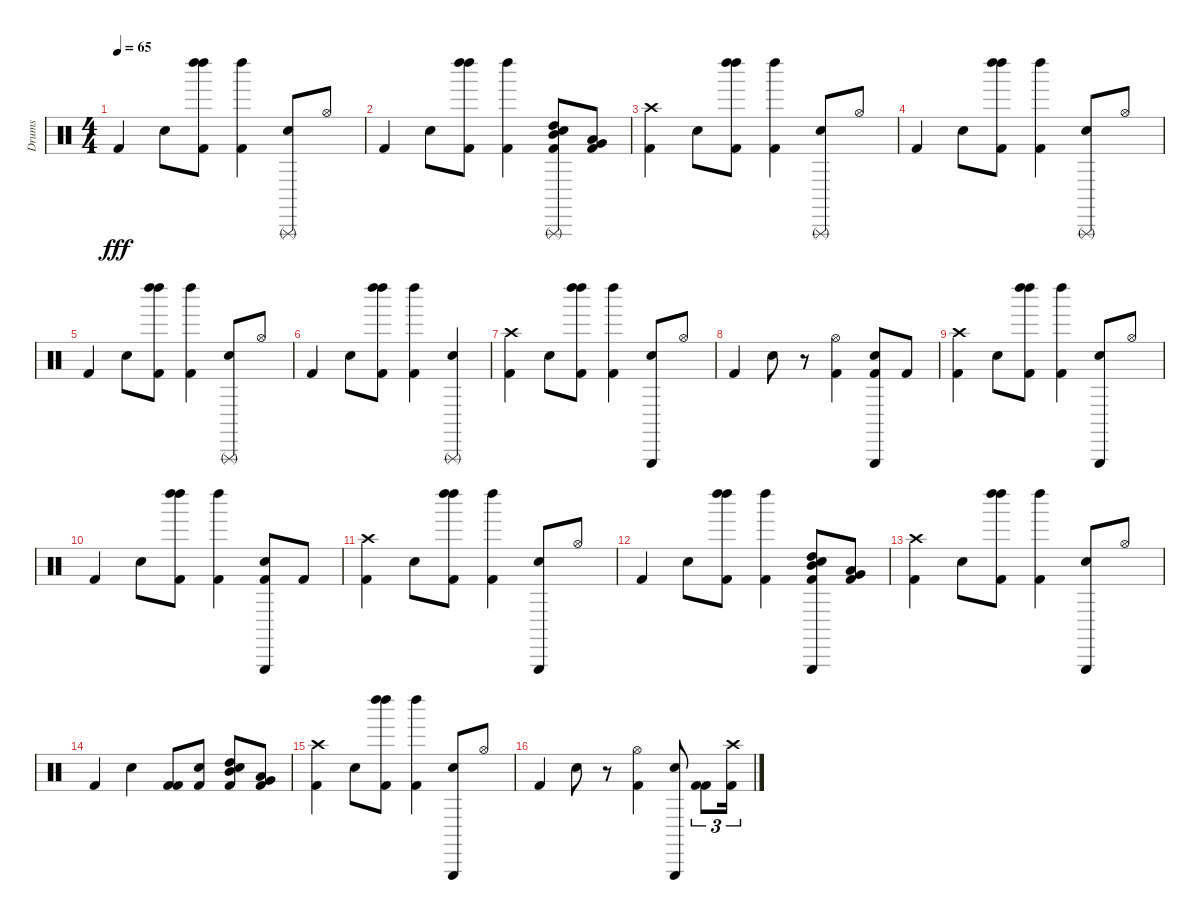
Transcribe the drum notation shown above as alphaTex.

\track ("Drums" "Drums") {instrument percussion}
\staff {score}
\articulation defaults
\ts (4 4)
\tempo 65
\clef neutral
\ks c "Kick (hit) 2".4{dy fff} "Snare (hit) 2".8
("Left Maraca (hit)" "Kick (hit) 2" "Left Maraca (hit)").8 ("Kick (hit) 2" "Left Maraca (hit)").4 ("Triangle (rnute)" "Electric Snare (hit)").8 "Hi-Hat (open)".8 |
"Kick (hit) 2".4 "Snare (hit) 2".8 ("Left Maraca (hit)" "Kick (hit) 2" "Left Maraca (hit)").8 ("Kick (hit) 2" "Left Maraca (hit)").4 ("Triangle (rnute)" "Electric Snare (hit)" "High Tom (hit)" "Kick (hit) 2" "Mid Tom (hit)").8 ("Kick (hit) 2" "Low Tom (hit)" "Very Low Tom (hit)").8 |
("Kick (hit) 2" "Crash high (hit)").4 "Snare (hit) 2".8 ("Left Maraca (hit)" "Kick (hit) 2" "Left Maraca (hit)").8 ("Kick (hit) 2" "Left Maraca (hit)").4 ("Triangle (rnute)" "Electric Snare (hit)").8 "Hi-Hat (open)".8 |
"Kick (hit) 2".4 "Snare (hit) 2".8 ("Left Maraca (hit)" "Kick (hit) 2" "Left Maraca (hit)").8 ("Kick (hit) 2" "Left Maraca (hit)").4 ("Triangle (rnute)" "Electric Snare (hit)").8 "Hi-Hat (open)".8 |
"Kick (hit) 2".4 "Snare (hit) 2".8 ("Left Maraca (hit)" "Kick (hit) 2" "Left Maraca (hit)").8 ("Kick (hit) 2" "Left Maraca (hit)").4 ("Triangle (rnute)" "Electric Snare (hit)").8 "Hi-Hat (open)".8 |
"Kick (hit) 2".4 "Snare (hit) 2".8 ("Left Maraca (hit)" "Kick (hit) 2" "Left Maraca (hit)").8 ("Kick (hit) 2" "Left Maraca (hit)").4 ("Triangle (rnute)" "Electric Snare (hit)").4 |
("Kick (hit) 2" "Crash high (hit)").4 "Electric Snare (hit)".8 ("Left Maraca (hit)" "Kick (hit) 2" "Left Maraca (hit)").8 ("Kick (hit) 2" "Left Maraca (hit)").4 ("Triangle (hit)" "Electric Snare (hit)").8 "Hi-Hat (open)".8 |
"Kick (hit) 2".4 "Electric Snare (hit)".8 r.8 ("Kick (hit) 2" "Hi-Hat (open)").4 ("Triangle (hit)" "Electric Snare (hit)" "Kick (hit) 2").8 "Kick (hit) 2".8 |
("Kick (hit) 2" "Crash high (hit)").4 "Electric Snare (hit)".8 ("Left Maraca (hit)" "Kick (hit) 2" "Left Maraca (hit)").8 ("Kick (hit) 2" "Left Maraca (hit)").4 ("Triangle (hit)" "Electric Snare (hit)").8 "Hi-Hat (open)".8 |
"Kick (hit) 2".4 "Electric Snare (hit)".8 ("Left Maraca (hit)" "Kick (hit) 2" "Left Maraca (hit)").8 ("Kick (hit) 2" "Left Maraca (hit)").4 ("Triangle (hit)" "Electric Snare (hit)" "Kick (hit) 2").8 "Kick (hit) 2".8 |
("Kick (hit) 2" "Crash high (hit)").4 "Electric Snare (hit)".8 ("Left Maraca (hit)" "Kick (hit) 2" "Left Maraca (hit)").8 ("Kick (hit) 2" "Left Maraca (hit)").4 ("Triangle (hit)" "Electric Snare (hit)").8 "Hi-Hat (open)".8 |
"Kick (hit) 2".4 "Electric Snare (hit)".8 ("Left Maraca (hit)" "Kick (hit) 2" "Left Maraca (hit)").8 ("Kick (hit) 2" "Left Maraca (hit)").4 ("Triangle (hit)" "Electric Snare (hit)" "High Tom (hit)" "Kick (hit) 2" "Mid Tom (hit)").8 ("Kick (hit) 2" "Low Tom (hit)" "Very Low Tom (hit)").8 |
("Kick (hit) 2" "Crash high (hit)").4 "Electric Snare (hit)".8 ("Left Maraca (hit)" "Kick (hit) 2" "Left Maraca (hit)").8 ("Kick (hit) 2" "Left Maraca (hit)").4 ("Triangle (hit)" "Electric Snare (hit)").8 "Hi-Hat (open)".8 |
"Kick (hit) 2".4 "Electric Snare (hit)".4 ("Kick (hit) 2" "Kick (hit) 2").8 ("Electric Snare (hit)" "Kick (hit) 2").8 ("Electric Snare (hit)" "High Tom (hit)" "Kick (hit) 2" "Mid Tom (hit)").8 ("Kick (hit) 2" "Low Tom (hit)" "Very Low Tom (hit)").8 |
("Kick (hit) 2" "Crash high (hit)").4 "Electric Snare (hit)".8 ("Left Maraca (hit)" "Kick (hit) 2" "Left Maraca (hit)").8 ("Kick (hit) 2" "Left Maraca (hit)").4 ("Triangle (hit)" "Electric Snare (hit)").8 "Hi-Hat (open)".8 |
"Kick (hit) 2".4 "Electric Snare (hit)".8 r.8 ("Kick (hit) 2" "Hi-Hat (open)").4 ("Triangle (hit)" "Electric Snare (hit)").8 ("Kick (hit) 2" "Kick (hit) 2").8{tu (3 2)} ("Kick (hit) 2" "Crash high (hit)").16{tu (3 2)}
